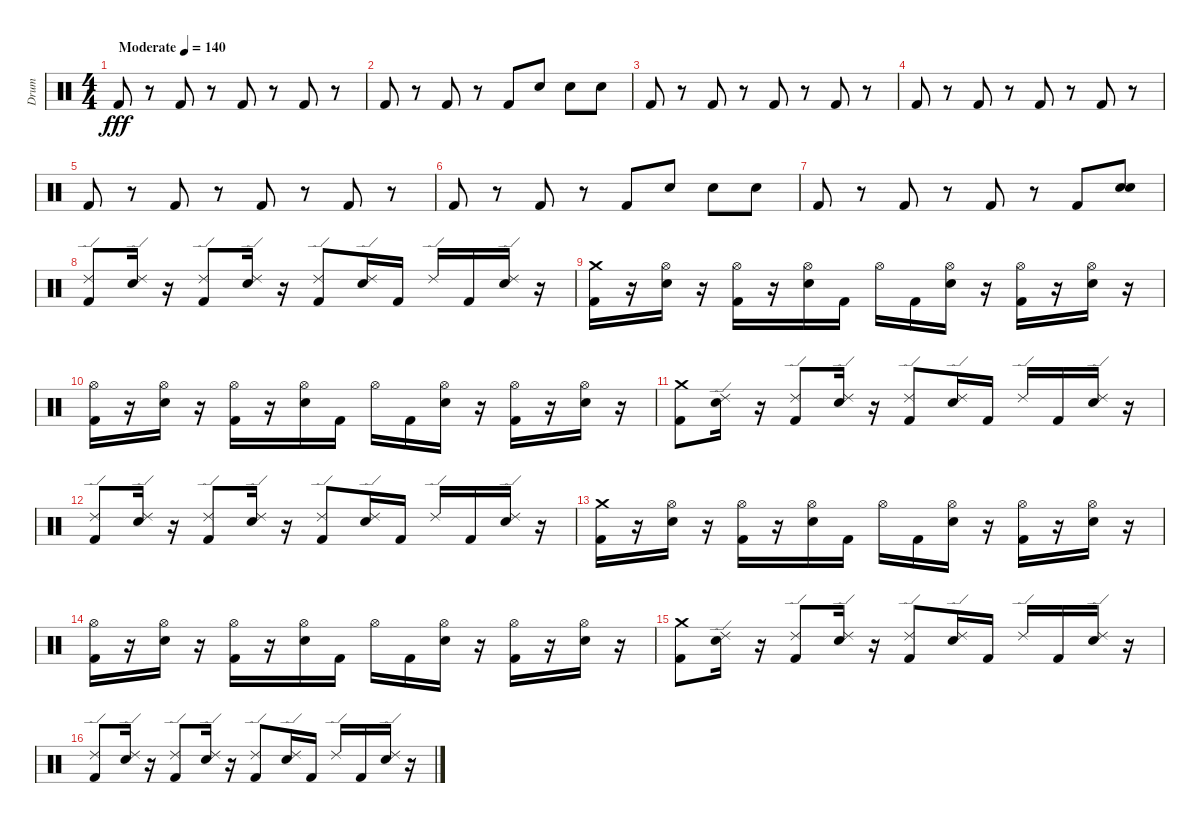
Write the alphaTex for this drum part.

\track ("Drum" "Drum") {instrument percussion}
\staff {score}
\articulation defaults
\ts (4 4)
\tempo (140 "Moderate")
\clef neutral
\ks c "Kick (hit) 2".8{dy fff}
r.8 "Kick (hit) 2".8 r.8 "Kick (hit) 2".8 r.8 "Kick (hit) 2".8 r.8 |
"Kick (hit) 2".8 r.8 "Kick (hit) 2".8 r.8 "Kick (hit) 2".8 "Snare (hit) 2".8 "Snare (hit) 2".8 "Snare (hit) 2".8 |
"Kick (hit) 2".8 r.8 "Kick (hit) 2".8 r.8 "Kick (hit) 2".8 r.8 "Kick (hit) 2".8 r.8 |
"Kick (hit) 2".8 r.8 "Kick (hit) 2".8 r.8 "Kick (hit) 2".8 r.8 "Kick (hit) 2".8 r.8 |
"Kick (hit) 2".8 r.8 "Kick (hit) 2".8 r.8 "Kick (hit) 2".8 r.8 "Kick (hit) 2".8 r.8 |
"Kick (hit) 2".8 r.8 "Kick (hit) 2".8 r.8 "Kick (hit) 2".8 "Snare (hit) 2".8 "Snare (hit) 2".8 "Snare (hit) 2".8 |
"Kick (hit) 2".8 r.8 "Kick (hit) 2".8 r.8 "Kick (hit) 2".8 r.8 "Kick (hit) 2".8 ("Snare (hit) 2" "Snare (hit) 2").8 |
("Kick (hit) 2" "Ride (edge) 2").8 ("Snare (hit) 2" "Ride (edge) 2").16 r.16 ("Kick (hit) 2" "Ride (edge) 2").8 ("Snare (hit) 2" "Ride (edge) 2").16 r.16 ("Kick (hit) 2" "Ride (edge) 2").8 ("Snare (hit) 2" "Ride (edge) 2").16 "Kick (hit) 2".16 "Ride (edge) 2".16 "Kick (hit) 2".16 ("Snare (hit) 2" "Ride (edge) 2").16 r.16 |
("Kick (hit) 2" "Crash medium (hit)").16 r.16 ("Hi-Hat (open)" "Snare (hit) 2").16 r.16 ("Hi-Hat (open)" "Kick (hit) 2").16 r.16 ("Hi-Hat (open)" "Snare (hit) 2").16 "Kick (hit) 2".16 "Hi-Hat (open)".16 "Kick (hit) 2".16 ("Hi-Hat (open)" "Snare (hit) 2").16 r.16 ("Hi-Hat (open)" "Kick (hit) 2").16 r.16 ("Hi-Hat (open)" "Snare (hit) 2").16 r.16 |
("Hi-Hat (open)" "Kick (hit) 2").16 r.16 ("Hi-Hat (open)" "Snare (hit) 2").16 r.16 ("Hi-Hat (open)" "Kick (hit) 2").16 r.16 ("Hi-Hat (open)" "Snare (hit) 2").16 "Kick (hit) 2".16 "Hi-Hat (open)".16 "Kick (hit) 2".16 ("Hi-Hat (open)" "Snare (hit) 2").16 r.16 ("Hi-Hat (open)" "Kick (hit) 2").16 r.16 ("Hi-Hat (open)" "Snare (hit) 2").16 r.16 |
("Kick (hit) 2" "Crash medium (hit)").8 ("Snare (hit) 2" "Ride (edge) 2").16 r.16 ("Kick (hit) 2" "Ride (edge) 2").8 ("Snare (hit) 2" "Ride (edge) 2").16 r.16 ("Kick (hit) 2" "Ride (edge) 2").8 ("Snare (hit) 2" "Ride (edge) 2").16 "Kick (hit) 2".16 "Ride (edge) 2".16 "Kick (hit) 2".16 ("Snare (hit) 2" "Ride (edge) 2").16 r.16 |
("Kick (hit) 2" "Ride (edge) 2").8 ("Snare (hit) 2" "Ride (edge) 2").16 r.16 ("Kick (hit) 2" "Ride (edge) 2").8 ("Snare (hit) 2" "Ride (edge) 2").16 r.16 ("Kick (hit) 2" "Ride (edge) 2").8 ("Snare (hit) 2" "Ride (edge) 2").16 "Kick (hit) 2".16 "Ride (edge) 2".16 "Kick (hit) 2".16 ("Snare (hit) 2" "Ride (edge) 2").16 r.16 |
("Kick (hit) 2" "Crash medium (hit)").16 r.16 ("Hi-Hat (open)" "Snare (hit) 2").16 r.16 ("Hi-Hat (open)" "Kick (hit) 2").16 r.16 ("Hi-Hat (open)" "Snare (hit) 2").16 "Kick (hit) 2".16 "Hi-Hat (open)".16 "Kick (hit) 2".16 ("Hi-Hat (open)" "Snare (hit) 2").16 r.16 ("Hi-Hat (open)" "Kick (hit) 2").16 r.16 ("Hi-Hat (open)" "Snare (hit) 2").16 r.16 |
("Hi-Hat (open)" "Kick (hit) 2").16 r.16 ("Hi-Hat (open)" "Snare (hit) 2").16 r.16 ("Hi-Hat (open)" "Kick (hit) 2").16 r.16 ("Hi-Hat (open)" "Snare (hit) 2").16 "Kick (hit) 2".16 "Hi-Hat (open)".16 "Kick (hit) 2".16 ("Hi-Hat (open)" "Snare (hit) 2").16 r.16 ("Hi-Hat (open)" "Kick (hit) 2").16 r.16 ("Hi-Hat (open)" "Snare (hit) 2").16 r.16 |
("Kick (hit) 2" "Crash medium (hit)").8 ("Snare (hit) 2" "Ride (edge) 2").16 r.16 ("Kick (hit) 2" "Ride (edge) 2").8 ("Snare (hit) 2" "Ride (edge) 2").16 r.16 ("Kick (hit) 2" "Ride (edge) 2").8 ("Snare (hit) 2" "Ride (edge) 2").16 "Kick (hit) 2".16 "Ride (edge) 2".16 "Kick (hit) 2".16 ("Snare (hit) 2" "Ride (edge) 2").16 r.16 |
("Kick (hit) 2" "Ride (edge) 2").8 ("Snare (hit) 2" "Ride (edge) 2").16 r.16 ("Kick (hit) 2" "Ride (edge) 2").8 ("Snare (hit) 2" "Ride (edge) 2").16 r.16 ("Kick (hit) 2" "Ride (edge) 2").8 ("Snare (hit) 2" "Ride (edge) 2").16 "Kick (hit) 2".16 "Ride (edge) 2".16 "Kick (hit) 2".16 ("Snare (hit) 2" "Ride (edge) 2").16 r.16
